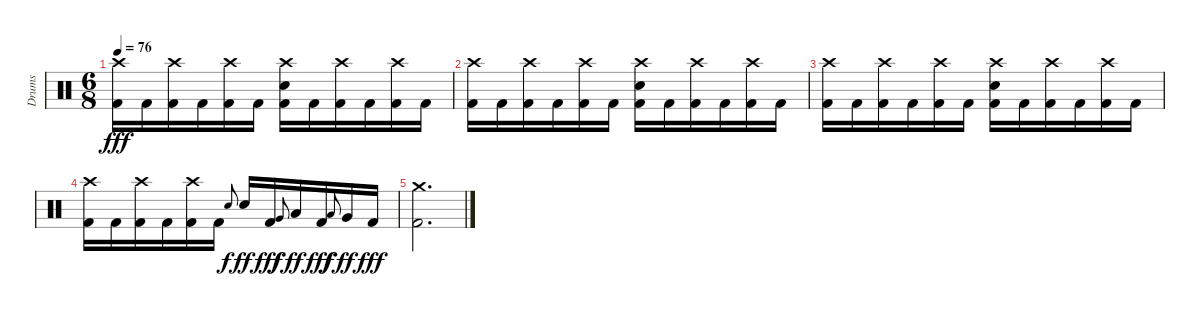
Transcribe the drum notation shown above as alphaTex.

\track ("Drums" "Drums") {instrument percussion}
\staff {score}
\articulation defaults
\ts (6 8)
\tempo 76
\clef neutral
\ks c
("Crash high (hit)" "Kick (hit) 2").16{dy fff} "Kick (hit) 2".16 ("Crash high (hit)" "Kick (hit) 2").16 "Kick (hit) 2".16 ("Crash high (hit)" "Kick (hit) 2").16 "Kick (hit) 2".16 ("Crash high (hit)" "Snare (hit) 2" "Kick (hit) 2").16 "Kick (hit) 2".16 ("Crash high (hit)" "Kick (hit) 2").16 "Kick (hit) 2".16 ("Crash high (hit)" "Kick (hit) 2").16 "Kick (hit) 2".16 |
("Crash high (hit)" "Kick (hit) 2").16 "Kick (hit) 2".16 ("Crash high (hit)" "Kick (hit) 2").16 "Kick (hit) 2".16 ("Crash high (hit)" "Kick (hit) 2").16 "Kick (hit) 2".16 ("Crash high (hit)" "Snare (hit) 2" "Kick (hit) 2").16 "Kick (hit) 2".16 ("Crash high (hit)" "Kick (hit) 2").16 "Kick (hit) 2".16 ("Crash high (hit)" "Kick (hit) 2").16 "Kick (hit) 2".16 |
("Crash high (hit)" "Kick (hit) 2").16 "Kick (hit) 2".16 ("Crash high (hit)" "Kick (hit) 2").16 "Kick (hit) 2".16 ("Crash high (hit)" "Kick (hit) 2").16 "Kick (hit) 2".16 ("Crash high (hit)" "Snare (hit) 2" "Kick (hit) 2").16 "Kick (hit) 2".16 ("Crash high (hit)" "Kick (hit) 2").16 "Kick (hit) 2".16 ("Crash high (hit)" "Kick (hit) 2").16 "Kick (hit) 2".16 |
("Crash high (hit)" "Kick (hit) 2").16 "Kick (hit) 2".16 ("Crash high (hit)" "Kick (hit) 2").16 "Kick (hit) 2".16 ("Crash high (hit)" "Kick (hit) 2").16 "Kick (hit) 2".16 "Snare (hit) 2".8{gr onbeat dy f} "Snare (hit) 2".16{dy ff} "Kick (hit) 2".16{dy fff} "Very Low Tom (hit)".8{gr onbeat dy f} "Low Tom (hit)".16{dy ff} "Kick (hit) 2".16{dy fff} "Low Floor Tom (hit)".8{gr onbeat dy f} "Very Low Tom (hit)".16{dy ff} "Kick (hit) 2".16{dy fff} |
("Crash medium (hit)" "Kick (hit) 2").2{d}
